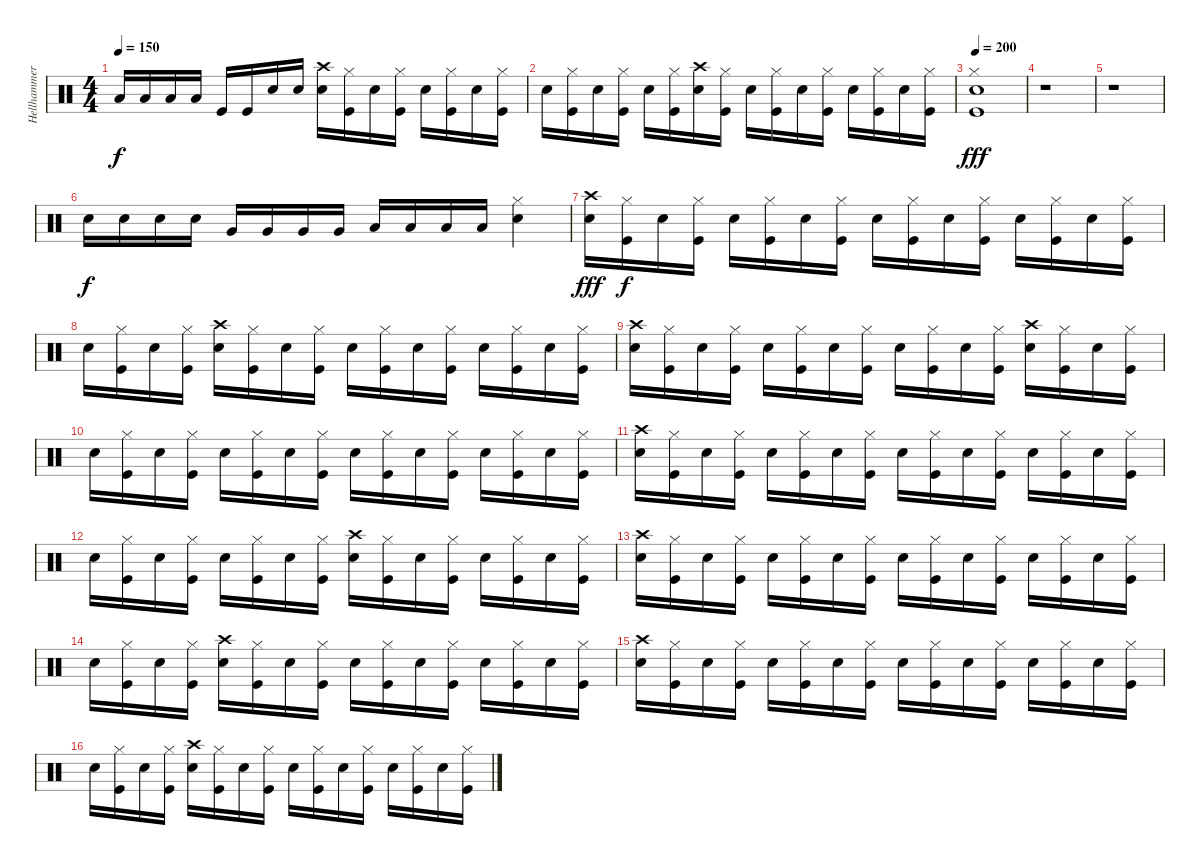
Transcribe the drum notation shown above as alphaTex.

\track ("Hellhammer" "Hellhammer") {instrument percussion}
\staff {score}
\articulation defaults
\ts (4 4)
\tempo 150
\clef neutral
\ks c "Low Floor Tom (hit)".16{dy f} "Low Floor Tom (hit)".16 "Low Floor Tom (hit)".16 "Low Floor Tom (hit)".16 "Kick (hit)".16 "Kick (hit)".16 "Snare (hit) 2".16 "Snare (hit) 2".16
("Snare (hit) 2" "Crash high (hit)").16 ("Kick (hit)" "Hi-Hat (closed)").16 "Snare (hit) 2".16 ("Kick (hit)" "Hi-Hat (closed)").16 "Snare (hit) 2".16 ("Kick (hit)" "Hi-Hat (closed)").16 "Snare (hit) 2".16 ("Kick (hit)" "Hi-Hat (closed)").16 |
"Snare (hit) 2".16 ("Kick (hit)" "Hi-Hat (closed)").16 "Snare (hit) 2".16 ("Kick (hit)" "Hi-Hat (closed)").16 "Snare (hit) 2".16 ("Kick (hit)" "Hi-Hat (closed)").16 ("Snare (hit) 2" "Crash high (hit)").16 ("Kick (hit)" "Hi-Hat (closed)").16 "Snare (hit) 2".16 ("Kick (hit)" "Hi-Hat (closed)").16 "Snare (hit) 2".16 ("Kick (hit)" "Hi-Hat (closed)").16 "Snare (hit) 2".16 ("Kick (hit)" "Hi-Hat (closed)").16 "Snare (hit) 2".16 ("Kick (hit)" "Hi-Hat (closed)").16 |
\tempo 200
("Snare (hit) 2" "Kick (hit)" "Hi-Hat (closed)").1{dy fff} |
r.1 |
r.1 |
"Snare (hit) 2".16{dy f} "Snare (hit) 2".16 "Snare (hit) 2".16 "Snare (hit) 2".16 "Very Low Tom (hit)".16 "Very Low Tom (hit)".16 "Very Low Tom (hit)".16 "Very Low Tom (hit)".16 "Low Floor Tom (hit)".16 "Low Floor Tom (hit)".16 "Low Floor Tom (hit)".16 "Low Floor Tom (hit)".16 ("Snare (hit) 2" "Hi-Hat (closed)").4 |
("Snare (hit) 2" "Crash high (hit)").16{dy fff} ("Kick (hit)" "Hi-Hat (closed)").16{dy f} "Snare (hit) 2".16 ("Kick (hit)" "Hi-Hat (closed)").16 "Snare (hit) 2".16 ("Kick (hit)" "Hi-Hat (closed)").16 "Snare (hit) 2".16 ("Kick (hit)" "Hi-Hat (closed)").16 "Snare (hit) 2".16 ("Kick (hit)" "Hi-Hat (closed)").16 "Snare (hit) 2".16 ("Kick (hit)" "Hi-Hat (closed)").16 "Snare (hit) 2".16 ("Kick (hit)" "Hi-Hat (closed)").16 "Snare (hit) 2".16 ("Kick (hit)" "Hi-Hat (closed)").16 |
"Snare (hit) 2".16 ("Kick (hit)" "Hi-Hat (closed)").16 "Snare (hit) 2".16 ("Kick (hit)" "Hi-Hat (closed)").16 ("Snare (hit) 2" "Crash high (hit)").16 ("Kick (hit)" "Hi-Hat (closed)").16 "Snare (hit) 2".16 ("Kick (hit)" "Hi-Hat (closed)").16 "Snare (hit) 2".16 ("Kick (hit)" "Hi-Hat (closed)").16 "Snare (hit) 2".16 ("Kick (hit)" "Hi-Hat (closed)").16 "Snare (hit) 2".16 ("Kick (hit)" "Hi-Hat (closed)").16 "Snare (hit) 2".16 ("Kick (hit)" "Hi-Hat (closed)").16 |
("Snare (hit) 2" "Crash high (hit)").16 ("Kick (hit)" "Hi-Hat (closed)").16 "Snare (hit) 2".16 ("Kick (hit)" "Hi-Hat (closed)").16 "Snare (hit) 2".16 ("Kick (hit)" "Hi-Hat (closed)").16 "Snare (hit) 2".16 ("Kick (hit)" "Hi-Hat (closed)").16 "Snare (hit) 2".16 ("Kick (hit)" "Hi-Hat (closed)").16 "Snare (hit) 2".16 ("Kick (hit)" "Hi-Hat (closed)").16 ("Snare (hit) 2" "Crash high (hit)").16 ("Kick (hit)" "Hi-Hat (closed)").16 "Snare (hit) 2".16 ("Kick (hit)" "Hi-Hat (closed)").16 |
"Snare (hit) 2".16 ("Kick (hit)" "Hi-Hat (closed)").16 "Snare (hit) 2".16 ("Kick (hit)" "Hi-Hat (closed)").16 "Snare (hit) 2".16 ("Kick (hit)" "Hi-Hat (closed)").16 "Snare (hit) 2".16 ("Kick (hit)" "Hi-Hat (closed)").16 "Snare (hit) 2".16 ("Kick (hit)" "Hi-Hat (closed)").16 "Snare (hit) 2".16 ("Kick (hit)" "Hi-Hat (closed)").16 "Snare (hit) 2".16 ("Kick (hit)" "Hi-Hat (closed)").16 "Snare (hit) 2".16 ("Kick (hit)" "Hi-Hat (closed)").16 |
("Snare (hit) 2" "Crash high (hit)").16 ("Kick (hit)" "Hi-Hat (closed)").16 "Snare (hit) 2".16 ("Kick (hit)" "Hi-Hat (closed)").16 "Snare (hit) 2".16 ("Kick (hit)" "Hi-Hat (closed)").16 "Snare (hit) 2".16 ("Kick (hit)" "Hi-Hat (closed)").16 "Snare (hit) 2".16 ("Kick (hit)" "Hi-Hat (closed)").16 "Snare (hit) 2".16 ("Kick (hit)" "Hi-Hat (closed)").16 "Snare (hit) 2".16 ("Kick (hit)" "Hi-Hat (closed)").16 "Snare (hit) 2".16 ("Kick (hit)" "Hi-Hat (closed)").16 |
"Snare (hit) 2".16 ("Kick (hit)" "Hi-Hat (closed)").16 "Snare (hit) 2".16 ("Kick (hit)" "Hi-Hat (closed)").16 "Snare (hit) 2".16 ("Kick (hit)" "Hi-Hat (closed)").16 "Snare (hit) 2".16 ("Kick (hit)" "Hi-Hat (closed)").16 ("Snare (hit) 2" "Crash high (hit)").16 ("Kick (hit)" "Hi-Hat (closed)").16 "Snare (hit) 2".16 ("Kick (hit)" "Hi-Hat (closed)").16 "Snare (hit) 2".16 ("Kick (hit)" "Hi-Hat (closed)").16 "Snare (hit) 2".16 ("Kick (hit)" "Hi-Hat (closed)").16 |
("Snare (hit) 2" "Crash high (hit)").16 ("Kick (hit)" "Hi-Hat (closed)").16 "Snare (hit) 2".16 ("Kick (hit)" "Hi-Hat (closed)").16 "Snare (hit) 2".16 ("Kick (hit)" "Hi-Hat (closed)").16 "Snare (hit) 2".16 ("Kick (hit)" "Hi-Hat (closed)").16 "Snare (hit) 2".16 ("Kick (hit)" "Hi-Hat (closed)").16 "Snare (hit) 2".16 ("Kick (hit)" "Hi-Hat (closed)").16 "Snare (hit) 2".16 ("Kick (hit)" "Hi-Hat (closed)").16 "Snare (hit) 2".16 ("Kick (hit)" "Hi-Hat (closed)").16 |
"Snare (hit) 2".16 ("Kick (hit)" "Hi-Hat (closed)").16 "Snare (hit) 2".16 ("Kick (hit)" "Hi-Hat (closed)").16 ("Snare (hit) 2" "Crash high (hit)").16 ("Kick (hit)" "Hi-Hat (closed)").16 "Snare (hit) 2".16 ("Kick (hit)" "Hi-Hat (closed)").16 "Snare (hit) 2".16 ("Kick (hit)" "Hi-Hat (closed)").16 "Snare (hit) 2".16 ("Kick (hit)" "Hi-Hat (closed)").16 "Snare (hit) 2".16 ("Kick (hit)" "Hi-Hat (closed)").16 "Snare (hit) 2".16 ("Kick (hit)" "Hi-Hat (closed)").16 |
("Snare (hit) 2" "Crash high (hit)").16 ("Kick (hit)" "Hi-Hat (closed)").16 "Snare (hit) 2".16 ("Kick (hit)" "Hi-Hat (closed)").16 "Snare (hit) 2".16 ("Kick (hit)" "Hi-Hat (closed)").16 "Snare (hit) 2".16 ("Kick (hit)" "Hi-Hat (closed)").16 "Snare (hit) 2".16 ("Kick (hit)" "Hi-Hat (closed)").16 "Snare (hit) 2".16 ("Kick (hit)" "Hi-Hat (closed)").16 "Snare (hit) 2".16 ("Kick (hit)" "Hi-Hat (closed)").16 "Snare (hit) 2".16 ("Kick (hit)" "Hi-Hat (closed)").16 |
"Snare (hit) 2".16 ("Kick (hit)" "Hi-Hat (closed)").16 "Snare (hit) 2".16 ("Kick (hit)" "Hi-Hat (closed)").16 ("Snare (hit) 2" "Crash high (hit)").16 ("Kick (hit)" "Hi-Hat (closed)").16 "Snare (hit) 2".16 ("Kick (hit)" "Hi-Hat (closed)").16 "Snare (hit) 2".16 ("Kick (hit)" "Hi-Hat (closed)").16 "Snare (hit) 2".16 ("Kick (hit)" "Hi-Hat (closed)").16 "Snare (hit) 2".16 ("Kick (hit)" "Hi-Hat (closed)").16 "Snare (hit) 2".16 ("Kick (hit)" "Hi-Hat (closed)").16
